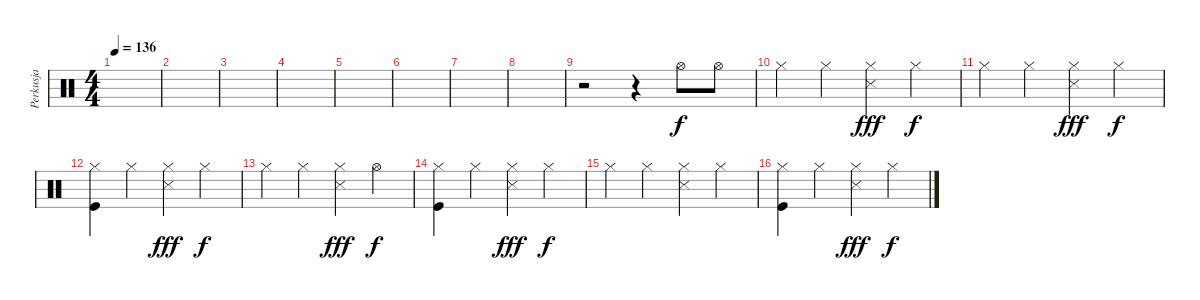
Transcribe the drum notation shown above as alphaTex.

\track ("Perkusja" "Perkusja") {instrument percussion}
\staff {score}
\articulation defaults
\ts (4 4)
\tempo 136
\clef neutral
\ks c
|
|
|
|
|
|
|
|
r.2 r.4 "Hi-Hat (open)".8 "Hi-Hat (open)".8 |
"Hi-Hat (closed)".4 "Hi-Hat (closed)".4 ("Hi-Hat (closed)" "Snare (side stick) 3").4{dy fff} "Hi-Hat (closed)".4{dy f} |
"Hi-Hat (closed)".4 "Hi-Hat (closed)".4 ("Hi-Hat (closed)" "Snare (side stick) 3").4{dy fff} "Hi-Hat (closed)".4{dy f} |
("Hi-Hat (closed)" "Kick (hit)").4 "Hi-Hat (closed)".4 ("Hi-Hat (closed)" "Snare (side stick) 3").4{dy fff} "Hi-Hat (closed)".4{dy f} |
"Hi-Hat (closed)".4 "Hi-Hat (closed)".4 ("Hi-Hat (closed)" "Snare (side stick) 3").4{dy fff} "Hi-Hat (open)".4{dy f} |
("Hi-Hat (closed)" "Kick (hit)").4 "Hi-Hat (closed)".4 ("Hi-Hat (closed)" "Snare (side stick) 3").4{dy fff} "Hi-Hat (closed)".4{dy f} |
"Hi-Hat (closed)".4 "Hi-Hat (closed)".4 ("Hi-Hat (closed)" "Snare (side stick) 3").4 "Hi-Hat (closed)".4 |
("Hi-Hat (closed)" "Kick (hit)").4 "Hi-Hat (closed)".4 ("Hi-Hat (closed)" "Snare (side stick) 3").4{dy fff} "Hi-Hat (closed)".4{dy f}
